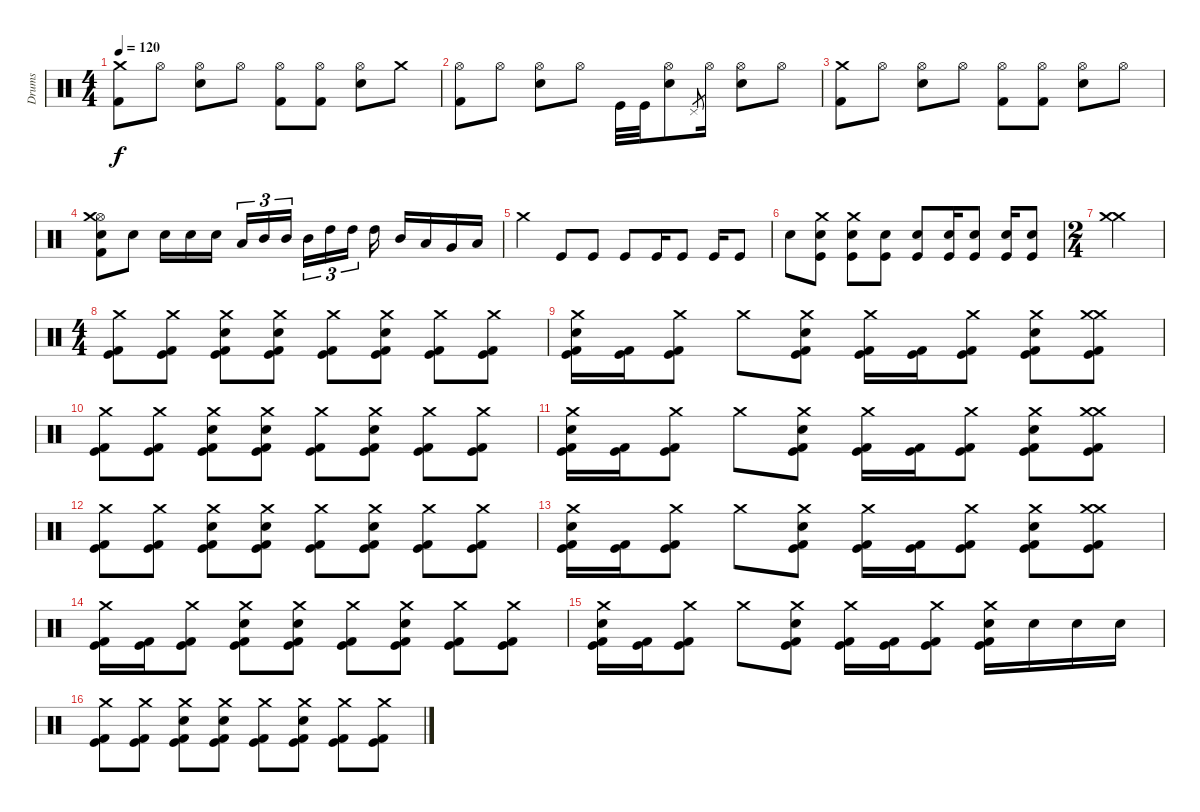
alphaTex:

\track ("Drums" "Drums") {instrument percussion}
\staff {score}
\articulation defaults
\ts (4 4)
\tempo 120
\clef neutral
\ks c
("Crash medium (hit)" "Kick (hit) 2").8{dy f} "Hi-Hat (open)".8 ("Hi-Hat (open)" "Snare (hit) 2").8 "Hi-Hat (open)".8 ("Hi-Hat (open)" "Kick (hit) 2").8 ("Hi-Hat (open)" "Kick (hit) 2").8 ("Hi-Hat (open)" "Snare (hit) 2").8 "Crash medium (hit)".8 |
("Hi-Hat (open)" "Kick (hit) 2").8 "Hi-Hat (open)".8 ("Hi-Hat (open)" "Snare (hit) 2").8 "Hi-Hat (open)".8 "Kick (hit)".32 "Kick (hit)".32 ("Hi-Hat (open)" "Snare (hit) 2").8 "Pedal Hi-Hat (hit)".8{gr} "Hi-Hat (open)".16 ("Hi-Hat (open)" "Snare (hit) 2").8 "Hi-Hat (open)".8 |
("Crash medium (hit)" "Kick (hit) 2").8 "Hi-Hat (open)".8 ("Hi-Hat (open)" "Snare (hit) 2").8 "Hi-Hat (open)".8 ("Hi-Hat (open)" "Kick (hit) 2").8 ("Hi-Hat (open)" "Kick (hit) 2").8 ("Hi-Hat (open)" "Snare (hit) 2").8 "Hi-Hat (open)".8 |
("Hi-Hat (open)" "Snare (hit) 2" "Kick (hit) 2" "Crash medium (hit)").8 "Snare (hit) 2".8 "Snare (hit) 2".16 "Snare (hit) 2".16 "Snare (hit) 2".16 "Low Tom (hit)".16{tu (3 2)} "Mid Tom (hit)".16{tu (3 2)} "Mid Tom (hit)".16{tu (3 2)} "Mid Tom (hit)".16{tu (3 2)} "High Tom (hit)".16{tu (3 2)} "High Tom (hit)".16{tu (3 2)} "High Tom (hit)".16 "Mid Tom (hit)".16 "Low Tom (hit)".16 "Very Low Tom (hit)".16 "Low Floor Tom (hit)".16 |
"Crash medium (hit)".4 "Kick (hit)".8 "Kick (hit)".8 "Kick (hit)".8 "Kick (hit)".16 "Kick (hit)".8 "Kick (hit)".16 "Kick (hit)".8 |
"Snare (hit) 2".8 ("Crash medium (hit)" "Snare (hit) 2" "Kick (hit)").8 ("Crash medium (hit)" "Snare (hit) 2" "Kick (hit)").8 ("Snare (hit) 2" "Kick (hit)").8 ("Snare (hit) 2" "Kick (hit)").8 ("Snare (hit) 2" "Kick (hit)").16 ("Snare (hit) 2" "Kick (hit)").8 ("Snare (hit) 2" "Kick (hit)").16 ("Snare (hit) 2" "Kick (hit)").8 |
\ts (2 4)
("Crash medium (hit)" "Crash medium (hit)").2 |
\ts (4 4)
("Crash medium (hit)" "Kick (hit)" "Kick (hit) 2").8 ("Crash medium (hit)" "Kick (hit)" "Kick (hit) 2").8 ("Crash medium (hit)" "Snare (hit) 2" "Kick (hit)" "Kick (hit) 2").8 ("Crash medium (hit)" "Snare (hit) 2" "Kick (hit)" "Kick (hit) 2").8 ("Crash medium (hit)" "Kick (hit)" "Kick (hit) 2").8 ("Crash medium (hit)" "Snare (hit) 2" "Kick (hit)" "Kick (hit) 2").8 ("Crash medium (hit)" "Kick (hit)" "Kick (hit) 2").8 ("Crash medium (hit)" "Kick (hit)" "Kick (hit) 2").8 |
("Crash medium (hit)" "Snare (hit) 2" "Kick (hit)" "Kick (hit) 2").16 ("Kick (hit)" "Kick (hit) 2").16 ("Crash medium (hit)" "Kick (hit)" "Kick (hit) 2").8 "Crash medium (hit)".8 ("Crash medium (hit)" "Snare (hit) 2" "Kick (hit)" "Kick (hit) 2").8 ("Crash medium (hit)" "Kick (hit)" "Kick (hit) 2").16 ("Kick (hit)" "Kick (hit) 2").16 ("Crash medium (hit)" "Kick (hit)" "Kick (hit) 2").8 ("Crash medium (hit)" "Snare (hit) 2" "Kick (hit)" "Kick (hit) 2").8 ("Crash medium (hit)" "Crash medium (hit)" "Kick (hit)" "Kick (hit) 2").8 |
("Crash medium (hit)" "Kick (hit)" "Kick (hit) 2").8 ("Crash medium (hit)" "Kick (hit)" "Kick (hit) 2").8 ("Crash medium (hit)" "Snare (hit) 2" "Kick (hit)" "Kick (hit) 2").8 ("Crash medium (hit)" "Snare (hit) 2" "Kick (hit)" "Kick (hit) 2").8 ("Crash medium (hit)" "Kick (hit)" "Kick (hit) 2").8 ("Crash medium (hit)" "Snare (hit) 2" "Kick (hit)" "Kick (hit) 2").8 ("Crash medium (hit)" "Kick (hit)" "Kick (hit) 2").8 ("Crash medium (hit)" "Kick (hit)" "Kick (hit) 2").8 |
("Crash medium (hit)" "Snare (hit) 2" "Kick (hit)" "Kick (hit) 2").16 ("Kick (hit)" "Kick (hit) 2").16 ("Crash medium (hit)" "Kick (hit)" "Kick (hit) 2").8 "Crash medium (hit)".8 ("Crash medium (hit)" "Snare (hit) 2" "Kick (hit)" "Kick (hit) 2").8 ("Crash medium (hit)" "Kick (hit)" "Kick (hit) 2").16 ("Kick (hit)" "Kick (hit) 2").16 ("Crash medium (hit)" "Kick (hit)" "Kick (hit) 2").8 ("Crash medium (hit)" "Snare (hit) 2" "Kick (hit)" "Kick (hit) 2").8 ("Crash medium (hit)" "Crash medium (hit)" "Kick (hit)" "Kick (hit) 2").8 |
("Crash medium (hit)" "Kick (hit)" "Kick (hit) 2").8 ("Crash medium (hit)" "Kick (hit)" "Kick (hit) 2").8 ("Crash medium (hit)" "Snare (hit) 2" "Kick (hit)" "Kick (hit) 2").8 ("Crash medium (hit)" "Snare (hit) 2" "Kick (hit)" "Kick (hit) 2").8 ("Crash medium (hit)" "Kick (hit)" "Kick (hit) 2").8 ("Crash medium (hit)" "Snare (hit) 2" "Kick (hit)" "Kick (hit) 2").8 ("Crash medium (hit)" "Kick (hit)" "Kick (hit) 2").8 ("Crash medium (hit)" "Kick (hit)" "Kick (hit) 2").8 |
("Crash medium (hit)" "Snare (hit) 2" "Kick (hit)" "Kick (hit) 2").16 ("Kick (hit)" "Kick (hit) 2").16 ("Crash medium (hit)" "Kick (hit)" "Kick (hit) 2").8 "Crash medium (hit)".8 ("Crash medium (hit)" "Snare (hit) 2" "Kick (hit)" "Kick (hit) 2").8 ("Crash medium (hit)" "Kick (hit)" "Kick (hit) 2").16 ("Kick (hit)" "Kick (hit) 2").16 ("Crash medium (hit)" "Kick (hit)" "Kick (hit) 2").8 ("Crash medium (hit)" "Snare (hit) 2" "Kick (hit)" "Kick (hit) 2").8 ("Crash medium (hit)" "Crash medium (hit)" "Kick (hit)" "Kick (hit) 2").8 |
("Crash medium (hit)" "Kick (hit)" "Kick (hit) 2").16 ("Kick (hit)" "Kick (hit) 2").16 ("Crash medium (hit)" "Kick (hit)" "Kick (hit) 2").8 ("Crash medium (hit)" "Snare (hit) 2" "Kick (hit)" "Kick (hit) 2").8 ("Crash medium (hit)" "Snare (hit) 2" "Kick (hit)" "Kick (hit) 2").8 ("Crash medium (hit)" "Kick (hit)" "Kick (hit) 2").8 ("Crash medium (hit)" "Snare (hit) 2" "Kick (hit)" "Kick (hit) 2").8 ("Crash medium (hit)" "Kick (hit)" "Kick (hit) 2").8 ("Crash medium (hit)" "Kick (hit)" "Kick (hit) 2").8 |
("Crash medium (hit)" "Snare (hit) 2" "Kick (hit)" "Kick (hit) 2").16 ("Kick (hit)" "Kick (hit) 2").16 ("Crash medium (hit)" "Kick (hit)" "Kick (hit) 2").8 "Crash medium (hit)".8 ("Crash medium (hit)" "Snare (hit) 2" "Kick (hit)" "Kick (hit) 2").8 ("Crash medium (hit)" "Kick (hit)" "Kick (hit) 2").16 ("Kick (hit)" "Kick (hit) 2").16 ("Crash medium (hit)" "Kick (hit)" "Kick (hit) 2").8 ("Crash medium (hit)" "Snare (hit) 2" "Kick (hit)" "Kick (hit) 2").16 "Snare (hit) 2".16 "Snare (hit) 2".16 "Snare (hit) 2".16 |
("Crash medium (hit)" "Kick (hit)" "Kick (hit) 2").8 ("Crash medium (hit)" "Kick (hit)" "Kick (hit) 2").8 ("Crash medium (hit)" "Snare (hit) 2" "Kick (hit)" "Kick (hit) 2").8 ("Crash medium (hit)" "Snare (hit) 2" "Kick (hit)" "Kick (hit) 2").8 ("Crash medium (hit)" "Kick (hit)" "Kick (hit) 2").8 ("Crash medium (hit)" "Snare (hit) 2" "Kick (hit)" "Kick (hit) 2").8 ("Crash medium (hit)" "Kick (hit)" "Kick (hit) 2").8 ("Crash medium (hit)" "Kick (hit)" "Kick (hit) 2").8
